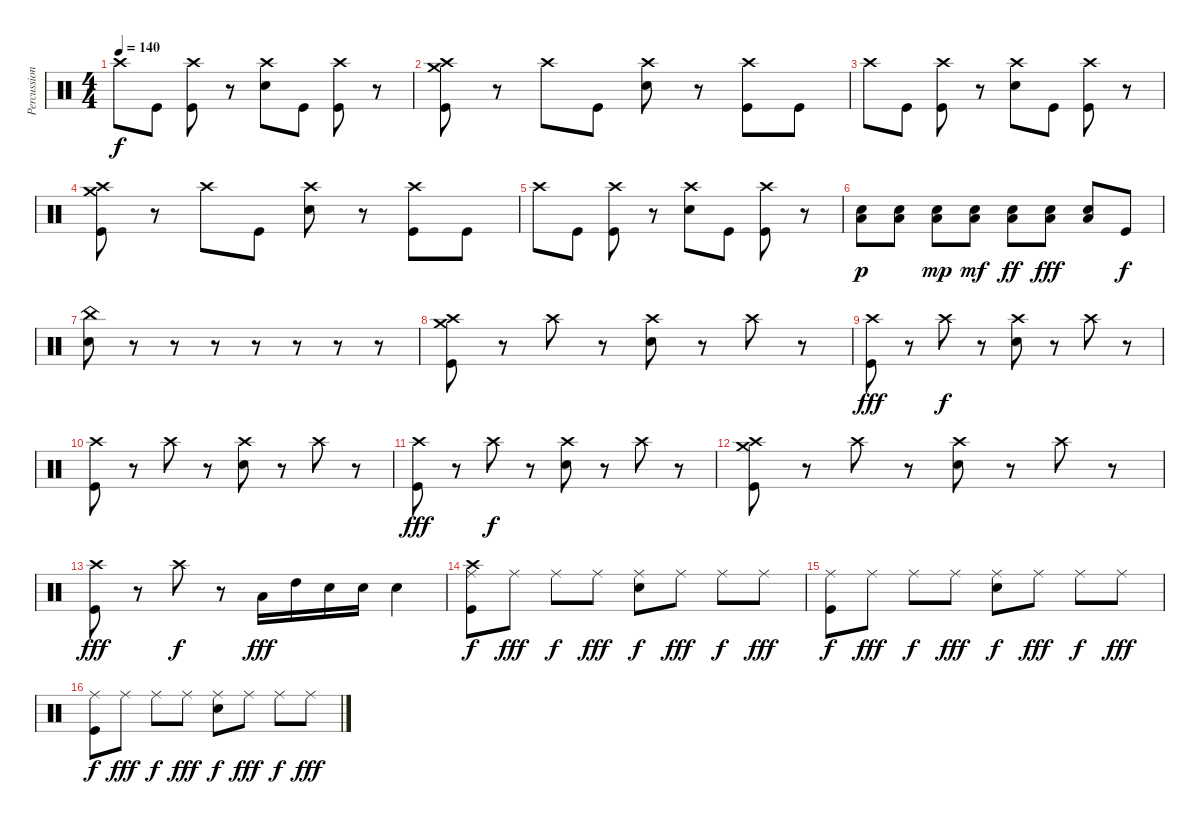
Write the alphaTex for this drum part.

\track ("Percussion" "Percussion") {instrument percussion}
\staff {score}
\articulation defaults
\ts (4 4)
\tempo 140
\clef neutral
\ks c "Crash high (hit)".8{dy f} "Kick (hit)".8
("Crash high (hit)" "Kick (hit)").8 r.8 ("Crash high (hit)" "Snare (hit) 2").8 "Kick (hit)".8 ("Crash high (hit)" "Kick (hit)").8 r.8 |
("Crash medium (hit)" "Crash high (hit)" "Kick (hit)").8 r.8 "Crash high (hit)".8 "Kick (hit)".8 ("Crash high (hit)" "Snare (hit) 2").8 r.8 ("Crash high (hit)" "Kick (hit)").8 "Kick (hit)".8 |
"Crash high (hit)".8 "Kick (hit)".8 ("Crash high (hit)" "Kick (hit)").8 r.8 ("Crash high (hit)" "Snare (hit) 2").8 "Kick (hit)".8 ("Crash high (hit)" "Kick (hit)").8 r.8 |
("Crash medium (hit)" "Crash high (hit)" "Kick (hit)").8 r.8 "Crash high (hit)".8 "Kick (hit)".8 ("Crash high (hit)" "Snare (hit) 2").8 r.8 ("Crash high (hit)" "Kick (hit)").8 "Kick (hit)".8 |
"Crash high (hit)".8 "Kick (hit)".8 ("Crash high (hit)" "Kick (hit)").8 r.8 ("Crash high (hit)" "Snare (hit) 2").8 "Kick (hit)".8 ("Crash high (hit)" "Kick (hit)").8 r.8 |
("Low Tom (hit)" "Snare (hit) 2").8{dy p} ("Low Tom (hit)" "Snare (hit) 2").8 ("Low Tom (hit)" "Snare (hit) 2").8{dy mp} ("Low Tom (hit)" "Snare (hit) 2").8{dy mf} ("Low Tom (hit)" "Snare (hit) 2").8{dy ff} ("Low Tom (hit)" "Snare (hit) 2").8{dy fff} ("Low Tom (hit)" "Snare (hit) 2").8 "Kick (hit)".8{dy f} |
("China (hit)" "Snare (hit) 2").8 r.8 r.8 r.8 r.8 r.8 r.8 r.8 |
("Crash medium (hit)" "Crash high (hit)" "Kick (hit)").8 r.8 "Crash high (hit)".8 r.8 ("Crash high (hit)" "Snare (hit) 2").8 r.8 "Crash high (hit)".8 r.8 |
("Crash high (hit)" "Kick (hit)").8{dy fff} r.8 "Crash high (hit)".8{dy f} r.8 ("Crash high (hit)" "Snare (hit) 2").8 r.8 "Crash high (hit)".8 r.8 |
("Crash high (hit)" "Kick (hit)").8 r.8 "Crash high (hit)".8 r.8 ("Crash high (hit)" "Snare (hit) 2").8 r.8 "Crash high (hit)".8 r.8 |
("Crash high (hit)" "Kick (hit)").8{dy fff} r.8 "Crash high (hit)".8{dy f} r.8 ("Crash high (hit)" "Snare (hit) 2").8 r.8 "Crash high (hit)".8 r.8 |
("Crash medium (hit)" "Crash high (hit)" "Kick (hit)").8 r.8 "Crash high (hit)".8 r.8 ("Crash high (hit)" "Snare (hit) 2").8 r.8 "Crash high (hit)".8 r.8 |
("Crash high (hit)" "Kick (hit)").8{dy fff} r.8 "Crash high (hit)".8{dy f} r.8 "Low Tom (hit)".16{dy fff} "High Tom (hit)".16 "Snare (hit) 2".16 "Snare (hit) 2".16 "Snare (hit) 2".4 |
("Crash high (hit)" "Ride (middle)" "Kick (hit)").8{dy f} "Ride (middle)".8{dy fff} "Ride (middle)".8{dy f} "Ride (middle)".8{dy fff} ("Ride (middle)" "Snare (hit) 2").8{dy f} "Ride (middle)".8{dy fff} "Ride (middle)".8{dy f} "Ride (middle)".8{dy fff} |
("Ride (middle)" "Kick (hit)").8{dy f} "Ride (middle)".8{dy fff} "Ride (middle)".8{dy f} "Ride (middle)".8{dy fff} ("Ride (middle)" "Snare (hit) 2").8{dy f} "Ride (middle)".8{dy fff} "Ride (middle)".8{dy f} "Ride (middle)".8{dy fff} |
("Ride (middle)" "Kick (hit)").8{dy f} "Ride (middle)".8{dy fff} "Ride (middle)".8{dy f} "Ride (middle)".8{dy fff} ("Ride (middle)" "Snare (hit) 2").8{dy f} "Ride (middle)".8{dy fff} "Ride (middle)".8{dy f} "Ride (middle)".8{dy fff}
